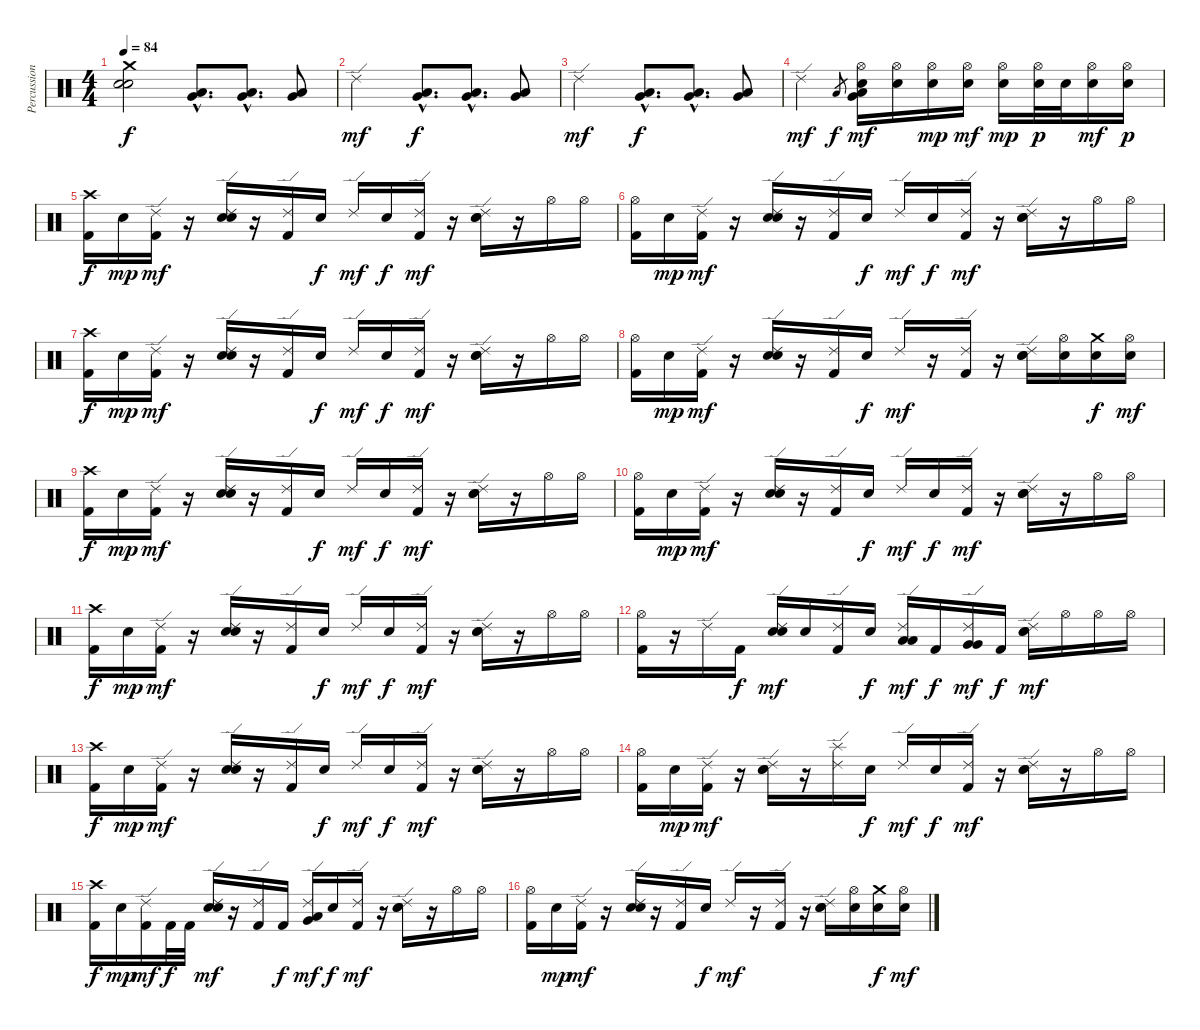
\track ("Percussion" "Percussion") {instrument percussion}
\staff {score}
\articulation defaults
\ts (4 4)
\tempo 84
\clef neutral
\ks c
("Crash medium (hit)" "Snare (hit) 2" "Electric Snare (hit)").2{dy f} ("Low Tom (hit)"{hac} "Very Low Tom (hit)"{hac}).8{d} ("Low Tom (hit)"{hac} "Very Low Tom (hit)"{hac}).8{d} ("Low Tom (hit)" "Very Low Tom (hit)").8 |
"Ride (edge) 2".2{dy mf} ("Low Tom (hit)"{hac} "Very Low Tom (hit)"{hac}).8{d dy f} ("Low Tom (hit)"{hac} "Very Low Tom (hit)"{hac}).8{d} ("Low Tom (hit)" "Very Low Tom (hit)").8 |
"Ride (edge) 2".2{dy mf} ("Low Tom (hit)"{hac} "Very Low Tom (hit)"{hac}).8{d dy f} ("Low Tom (hit)"{hac} "Very Low Tom (hit)"{hac}).8{d} ("Low Tom (hit)" "Very Low Tom (hit)").8 |
"Ride (edge) 2".2{dy mf} "Low Tom (hit)".8{gr dy f} ("Hi-Hat (open)" "Very Low Tom (hit)" "Low Tom (hit)" "Electric Snare (hit)").16{dy mf} ("Hi-Hat (open)" "Electric Snare (hit)").16 ("Hi-Hat (open)" "Electric Snare (hit)").16{dy mp} ("Hi-Hat (open)" "Electric Snare (hit)").16{dy mf} ("Hi-Hat (open)" "Electric Snare (hit)").16{dy mp} ("Hi-Hat (open)" "Electric Snare (hit)").32{dy p} "Electric Snare (hit)".32 ("Hi-Hat (open)" "Electric Snare (hit)").16{dy mf} ("Hi-Hat (open)" "Electric Snare (hit)").16{dy p} |
("Crash high (hit)" "Kick (hit) 2").16{dy f} "Electric Snare (hit)".16{dy mp} ("Ride (edge) 2" "Kick (hit) 2").16{dy mf} r.16 ("Ride (edge) 2" "Snare (hit) 2" "Electric Snare (hit)").16 r.16 ("Ride (edge) 2" "Kick (hit) 2").16 "Electric Snare (hit)".16{dy f} "Ride (edge) 2".16{dy mf} "Electric Snare (hit)".16{dy f} ("Ride (edge) 2" "Kick (hit) 2").16{dy mf} r.16 ("Ride (edge) 2" "Snare (hit) 2" "Electric Snare (hit)").16 r.16 "Hi-Hat (open)".16 "Hi-Hat (open)".16 |
("Hi-Hat (open)" "Kick (hit) 2").16 "Electric Snare (hit)".16{dy mp} ("Ride (edge) 2" "Kick (hit) 2").16{dy mf} r.16 ("Ride (edge) 2" "Snare (hit) 2" "Electric Snare (hit)").16 r.16 ("Ride (edge) 2" "Kick (hit) 2").16 "Electric Snare (hit)".16{dy f} "Ride (edge) 2".16{dy mf} "Electric Snare (hit)".16{dy f} ("Ride (edge) 2" "Kick (hit) 2").16{dy mf} r.16 ("Ride (edge) 2" "Snare (hit) 2" "Electric Snare (hit)").16 r.16 "Hi-Hat (open)".16 "Hi-Hat (open)".16 |
("Crash high (hit)" "Kick (hit) 2").16{dy f} "Electric Snare (hit)".16{dy mp} ("Ride (edge) 2" "Kick (hit) 2").16{dy mf} r.16 ("Ride (edge) 2" "Snare (hit) 2" "Electric Snare (hit)").16 r.16 ("Ride (edge) 2" "Kick (hit) 2").16 "Electric Snare (hit)".16{dy f} "Ride (edge) 2".16{dy mf} "Electric Snare (hit)".16{dy f} ("Ride (edge) 2" "Kick (hit) 2").16{dy mf} r.16 ("Ride (edge) 2" "Snare (hit) 2" "Electric Snare (hit)").16 r.16 "Hi-Hat (open)".16 "Hi-Hat (open)".16 |
("Hi-Hat (open)" "Kick (hit) 2").16 "Electric Snare (hit)".16{dy mp} ("Ride (edge) 2" "Kick (hit) 2").16{dy mf} r.16 ("Ride (edge) 2" "Snare (hit) 2" "Electric Snare (hit)").16 r.16 ("Ride (edge) 2" "Kick (hit) 2").16 "Electric Snare (hit)".16{dy f} "Ride (edge) 2".16{dy mf} r.16 ("Ride (edge) 2" "Kick (hit) 2").16 r.16 ("Ride (edge) 2" "Snare (hit) 2" "Electric Snare (hit)").16 ("Hi-Hat (open)" "Electric Snare (hit)").16 ("Crash medium (hit)" "Electric Snare (hit)").16{dy f} ("Hi-Hat (open)" "Electric Snare (hit)").16{dy mf} |
("Crash high (hit)" "Kick (hit) 2").16{dy f} "Electric Snare (hit)".16{dy mp} ("Ride (edge) 2" "Kick (hit) 2").16{dy mf} r.16 ("Ride (edge) 2" "Snare (hit) 2" "Electric Snare (hit)").16 r.16 ("Ride (edge) 2" "Kick (hit) 2").16 "Electric Snare (hit)".16{dy f} "Ride (edge) 2".16{dy mf} "Electric Snare (hit)".16{dy f} ("Ride (edge) 2" "Kick (hit) 2").16{dy mf} r.16 ("Ride (edge) 2" "Snare (hit) 2" "Electric Snare (hit)").16 r.16 "Hi-Hat (open)".16 "Hi-Hat (open)".16 |
("Hi-Hat (open)" "Kick (hit) 2").16 "Electric Snare (hit)".16{dy mp} ("Ride (edge) 2" "Kick (hit) 2").16{dy mf} r.16 ("Ride (edge) 2" "Snare (hit) 2" "Electric Snare (hit)").16 r.16 ("Ride (edge) 2" "Kick (hit) 2").16 "Electric Snare (hit)".16{dy f} "Ride (edge) 2".16{dy mf} "Electric Snare (hit)".16{dy f} ("Ride (edge) 2" "Kick (hit) 2").16{dy mf} r.16 ("Ride (edge) 2" "Snare (hit) 2" "Electric Snare (hit)").16 r.16 "Hi-Hat (open)".16 "Hi-Hat (open)".16 |
("Crash high (hit)" "Kick (hit) 2").16{dy f} "Electric Snare (hit)".16{dy mp} ("Ride (edge) 2" "Kick (hit) 2").16{dy mf} r.16 ("Ride (edge) 2" "Snare (hit) 2" "Electric Snare (hit)").16 r.16 ("Ride (edge) 2" "Kick (hit) 2").16 "Electric Snare (hit)".16{dy f} "Ride (edge) 2".16{dy mf} "Electric Snare (hit)".16{dy f} ("Ride (edge) 2" "Kick (hit) 2").16{dy mf} r.16 ("Ride (edge) 2" "Snare (hit) 2" "Electric Snare (hit)").16 r.16 "Hi-Hat (open)".16 "Hi-Hat (open)".16 |
("Hi-Hat (open)" "Kick (hit) 2").16 r.16 "Ride (edge) 2".16 "Kick (hit) 2".16{dy f} ("Ride (edge) 2" "Snare (hit) 2" "Electric Snare (hit)").16{dy mf} "Electric Snare (hit)".16 ("Ride (edge) 2" "Kick (hit) 2").16 "Electric Snare (hit)".16{dy f} ("Ride (edge) 2" "Low Tom (hit)" "Low Tom (hit)").16{dy mf} "Kick (hit) 2".16{dy f} ("Ride (edge) 2" "Very Low Tom (hit)" "Very Low Tom (hit)").16{dy mf} "Kick (hit) 2".16{dy f} ("Ride (edge) 2" "Snare (hit) 2" "Electric Snare (hit)").16{dy mf} "Hi-Hat (open)".16 "Hi-Hat (open)".16 "Hi-Hat (open)".16 |
("Crash high (hit)" "Kick (hit) 2").16{dy f} "Electric Snare (hit)".16{dy mp} ("Ride (edge) 2" "Kick (hit) 2").16{dy mf} r.16 ("Ride (edge) 2" "Snare (hit) 2" "Electric Snare (hit)").16 r.16 ("Ride (edge) 2" "Kick (hit) 2").16 "Electric Snare (hit)".16{dy f} "Ride (edge) 2".16{dy mf} "Electric Snare (hit)".16{dy f} ("Ride (edge) 2" "Kick (hit) 2").16{dy mf} r.16 ("Ride (edge) 2" "Snare (hit) 2" "Electric Snare (hit)").16 r.16 "Hi-Hat (open)".16 "Hi-Hat (open)".16 |
("Hi-Hat (open)" "Kick (hit) 2").16 "Electric Snare (hit)".16{dy mp} ("Ride (edge) 2" "Kick (hit) 2").16{dy mf} r.16 ("Ride (edge) 2" "Snare (hit) 2" "Electric Snare (hit)").16 r.16 ("Ride (edge) 2" "Splash (hit)").16 "Electric Snare (hit)".16{dy f} "Ride (edge) 2".16{dy mf} "Electric Snare (hit)".16{dy f} ("Ride (edge) 2" "Kick (hit) 2").16{dy mf} r.16 ("Ride (edge) 2" "Snare (hit) 2" "Electric Snare (hit)").16 r.16 "Hi-Hat (open)".16 "Hi-Hat (open)".16 |
("Crash high (hit)" "Kick (hit) 2").16{dy f} "Electric Snare (hit)".16{dy mp} ("Ride (edge) 2" "Kick (hit) 2").16{dy mf} "Kick (hit) 2".32{dy f} "Kick (hit) 2".32 ("Ride (edge) 2" "Snare (hit) 2" "Electric Snare (hit)").16{dy mf} r.16 ("Ride (edge) 2" "Kick (hit) 2").16 "Kick (hit) 2".16{dy f} ("Ride (edge) 2" "Very Low Tom (hit)" "Low Tom (hit)").16{dy mf} "Electric Snare (hit)".16{dy f} ("Ride (edge) 2" "Kick (hit) 2").16{dy mf} r.16 ("Ride (edge) 2" "Snare (hit) 2" "Electric Snare (hit)").16 r.16 "Hi-Hat (open)".16 "Hi-Hat (open)".16 |
("Hi-Hat (open)" "Kick (hit) 2").16 "Electric Snare (hit)".16{dy mp} ("Ride (edge) 2" "Kick (hit) 2").16{dy mf} r.16 ("Ride (edge) 2" "Snare (hit) 2" "Electric Snare (hit)").16 r.16 ("Ride (edge) 2" "Kick (hit) 2").16 "Electric Snare (hit)".16{dy f} "Ride (edge) 2".16{dy mf} r.16 ("Ride (edge) 2" "Kick (hit) 2").16 r.16 ("Ride (edge) 2" "Snare (hit) 2" "Electric Snare (hit)").16 ("Hi-Hat (open)" "Electric Snare (hit)").16 ("Crash medium (hit)" "Electric Snare (hit)").16{dy f} ("Hi-Hat (open)" "Electric Snare (hit)").16{dy mf}
